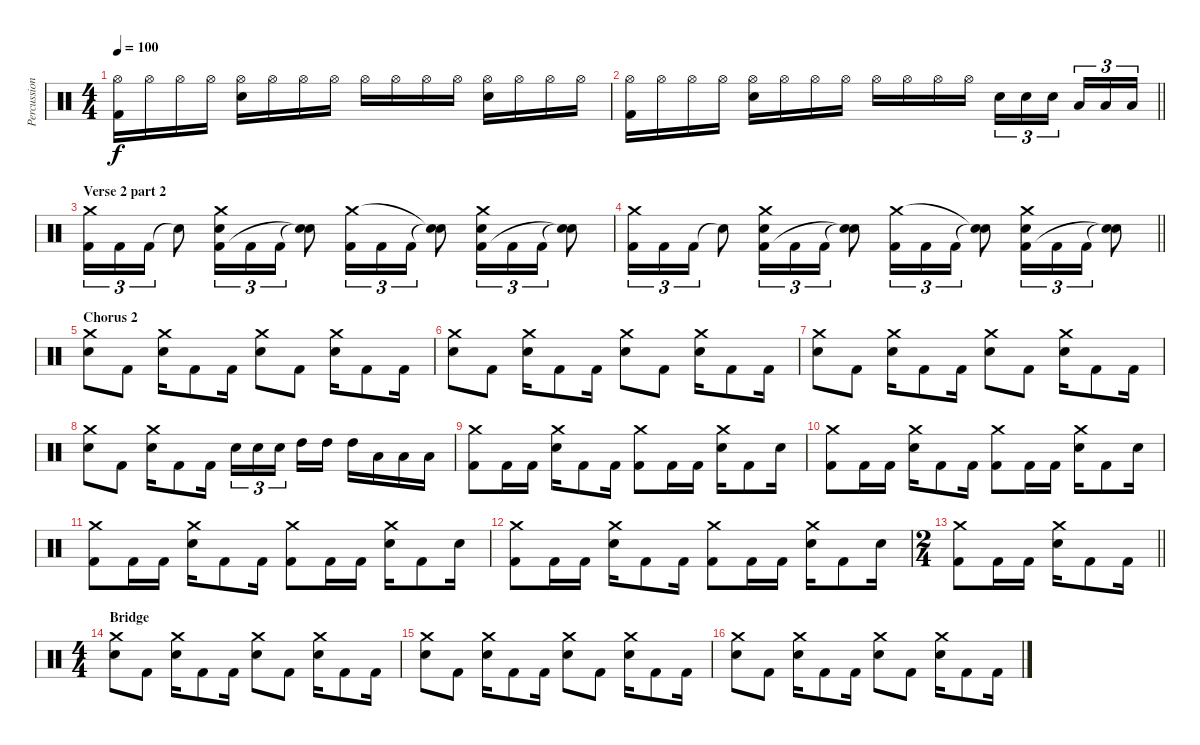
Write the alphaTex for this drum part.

\track ("Percussion" "Percussion") {instrument percussion}
\staff {score}
\articulation defaults
\ts (4 4)
\tempo 100
\clef neutral
\ks c
("Hi-Hat (open)" "Kick (hit) 2").16{dy f} "Hi-Hat (open)".16 "Hi-Hat (open)".16 "Hi-Hat (open)".16 ("Hi-Hat (open)" "Snare (hit) 2").16 "Hi-Hat (open)".16 "Hi-Hat (open)".16 "Hi-Hat (open)".16 "Hi-Hat (open)".16 "Hi-Hat (open)".16 "Hi-Hat (open)".16 "Hi-Hat (open)".16 ("Hi-Hat (open)" "Snare (hit) 2").16 "Hi-Hat (open)".16 "Hi-Hat (open)".16 "Hi-Hat (open)".16 |
\barLineRight lightlight
("Hi-Hat (open)" "Kick (hit) 2").16 "Hi-Hat (open)".16 "Hi-Hat (open)".16 "Hi-Hat (open)".16 ("Hi-Hat (open)" "Snare (hit) 2").16 "Hi-Hat (open)".16 "Hi-Hat (open)".16 "Hi-Hat (open)".16 "Hi-Hat (open)".16 "Hi-Hat (open)".16 "Hi-Hat (open)".16 "Hi-Hat (open)".16 "Snare (hit) 2".16{tu (3 2)} "Snare (hit) 2".16{tu (3 2)} "Snare (hit) 2".16{tu (3 2) beam splitsecondary} "Low Floor Tom (hit)".16{tu (3 2)} "Low Floor Tom (hit)".16{tu (3 2)} "Low Floor Tom (hit)".16{tu (3 2)} |
\section ("" "Verse 2 part 2")
("Kick (hit) 2" "Crash medium (hit)").16{tu (3 2)} "Kick (hit) 2".16{tu (3 2)} "Kick (hit) 2".16{tu (3 2)} "Snare (hit)"{t}.8 ("Snare (hit) 2" "Kick (hit) 2" "Crash medium (hit)").16{tu (3 2)} "Kick (hit) 2".16{tu (3 2)} "Kick (hit) 2".16{tu (3 2)} ("Snare (hit)"{t} "Snare (hit)"{t}).8 ("Kick (hit) 2" "Crash medium (hit)").16{tu (3 2)} "Kick (hit) 2".16{tu (3 2)} "Kick (hit) 2".16{tu (3 2)} ("Snare (hit)"{t} "Snare (hit)"{t}).8 ("Snare (hit) 2" "Kick (hit) 2" "Crash medium (hit)").16{tu (3 2)} "Kick (hit) 2".16{tu (3 2)} "Kick (hit) 2".16{tu (3 2)} ("Snare (hit)"{t} "Snare (hit)"{t}).8 |
\barLineRight lightlight
("Kick (hit) 2" "Crash medium (hit)").16{tu (3 2)} "Kick (hit) 2".16{tu (3 2)} "Kick (hit) 2".16{tu (3 2)} "Snare (hit)"{t}.8 ("Snare (hit) 2" "Kick (hit) 2" "Crash medium (hit)").16{tu (3 2)} "Kick (hit) 2".16{tu (3 2)} "Kick (hit) 2".16{tu (3 2)} ("Snare (hit)"{t} "Snare (hit)"{t}).8 ("Kick (hit) 2" "Crash medium (hit)").16{tu (3 2)} "Kick (hit) 2".16{tu (3 2)} "Kick (hit) 2".16{tu (3 2)} ("Snare (hit)"{t} "Snare (hit)"{t}).8 ("Snare (hit) 2" "Kick (hit) 2" "Crash medium (hit)").16{tu (3 2)} "Kick (hit) 2".16{tu (3 2)} "Kick (hit) 2".16{tu (3 2)} ("Snare (hit)"{t} "Snare (hit)"{t}).8 |
\section ("" "Chorus 2")
("Snare (hit) 2" "Crash medium (hit)").8 "Kick (hit) 2".8 ("Snare (hit) 2" "Crash medium (hit)").16 "Kick (hit) 2".8 "Kick (hit) 2".16 ("Snare (hit) 2" "Crash medium (hit)").8 "Kick (hit) 2".8 ("Snare (hit) 2" "Crash medium (hit)").16 "Kick (hit) 2".8 "Kick (hit) 2".16 |
("Snare (hit) 2" "Crash medium (hit)").8 "Kick (hit) 2".8 ("Snare (hit) 2" "Crash medium (hit)").16 "Kick (hit) 2".8 "Kick (hit) 2".16 ("Snare (hit) 2" "Crash medium (hit)").8 "Kick (hit) 2".8 ("Snare (hit) 2" "Crash medium (hit)").16 "Kick (hit) 2".8 "Kick (hit) 2".16 |
("Snare (hit) 2" "Crash medium (hit)").8 "Kick (hit) 2".8 ("Snare (hit) 2" "Crash medium (hit)").16 "Kick (hit) 2".8 "Kick (hit) 2".16 ("Snare (hit) 2" "Crash medium (hit)").8 "Kick (hit) 2".8 ("Snare (hit) 2" "Crash medium (hit)").16 "Kick (hit) 2".8 "Kick (hit) 2".16 |
("Snare (hit) 2" "Crash medium (hit)").8 "Kick (hit) 2".8 ("Snare (hit) 2" "Crash medium (hit)").16 "Kick (hit) 2".8 "Kick (hit) 2".16 "Snare (hit) 2".16{tu (3 2)} "Snare (hit) 2".16{tu (3 2)} "Snare (hit) 2".16{tu (3 2) beam splitsecondary} "High Tom (hit)".16 "High Tom (hit)".16 "High Tom (hit)".16 "Low Tom (hit)".16 "Low Tom (hit)".16 "Low Floor Tom (hit)".16 |
("Kick (hit) 2" "Crash medium (hit)").8 "Kick (hit) 2".16 "Kick (hit) 2".16 ("Snare (hit) 2" "Crash medium (hit)").16 "Kick (hit) 2".8 "Kick (hit) 2".16 ("Kick (hit) 2" "Crash medium (hit)").8 "Kick (hit) 2".16 "Kick (hit) 2".16 ("Snare (hit) 2" "Crash medium (hit)").16 "Kick (hit) 2".8 "Snare (hit) 2".16 |
("Kick (hit) 2" "Crash medium (hit)").8 "Kick (hit) 2".16 "Kick (hit) 2".16 ("Snare (hit) 2" "Crash medium (hit)").16 "Kick (hit) 2".8 "Kick (hit) 2".16 ("Kick (hit) 2" "Crash medium (hit)").8 "Kick (hit) 2".16 "Kick (hit) 2".16 ("Snare (hit) 2" "Crash medium (hit)").16 "Kick (hit) 2".8 "Snare (hit) 2".16 |
("Kick (hit) 2" "Crash medium (hit)").8 "Kick (hit) 2".16 "Kick (hit) 2".16 ("Snare (hit) 2" "Crash medium (hit)").16 "Kick (hit) 2".8 "Kick (hit) 2".16 ("Kick (hit) 2" "Crash medium (hit)").8 "Kick (hit) 2".16 "Kick (hit) 2".16 ("Snare (hit) 2" "Crash medium (hit)").16 "Kick (hit) 2".8 "Snare (hit) 2".16 |
("Kick (hit) 2" "Crash medium (hit)").8 "Kick (hit) 2".16 "Kick (hit) 2".16 ("Snare (hit) 2" "Crash medium (hit)").16 "Kick (hit) 2".8 "Kick (hit) 2".16 ("Kick (hit) 2" "Crash medium (hit)").8 "Kick (hit) 2".16 "Kick (hit) 2".16 ("Snare (hit) 2" "Crash medium (hit)").16 "Kick (hit) 2".8 "Snare (hit) 2".16 |
\ts (2 4)
\barLineRight lightlight
("Kick (hit) 2" "Crash medium (hit)").8 "Kick (hit) 2".16 "Kick (hit) 2".16 ("Snare (hit) 2" "Crash medium (hit)").16 "Kick (hit) 2".8 "Kick (hit) 2".16 |
\ts (4 4)
\section ("" "Bridge")
("Snare (hit) 2" "Crash medium (hit)").8 "Kick (hit) 2".8 ("Snare (hit) 2" "Crash medium (hit)").16 "Kick (hit) 2".8 "Kick (hit) 2".16 ("Snare (hit) 2" "Crash medium (hit)").8 "Kick (hit) 2".8 ("Snare (hit) 2" "Crash medium (hit)").16 "Kick (hit) 2".8 "Kick (hit) 2".16 |
("Snare (hit) 2" "Crash medium (hit)").8 "Kick (hit) 2".8 ("Snare (hit) 2" "Crash medium (hit)").16 "Kick (hit) 2".8 "Kick (hit) 2".16 ("Snare (hit) 2" "Crash medium (hit)").8 "Kick (hit) 2".8 ("Snare (hit) 2" "Crash medium (hit)").16 "Kick (hit) 2".8 "Kick (hit) 2".16 |
("Snare (hit) 2" "Crash medium (hit)").8 "Kick (hit) 2".8 ("Snare (hit) 2" "Crash medium (hit)").16 "Kick (hit) 2".8 "Kick (hit) 2".16 ("Snare (hit) 2" "Crash medium (hit)").8 "Kick (hit) 2".8 ("Snare (hit) 2" "Crash medium (hit)").16 "Kick (hit) 2".8 "Kick (hit) 2".16
